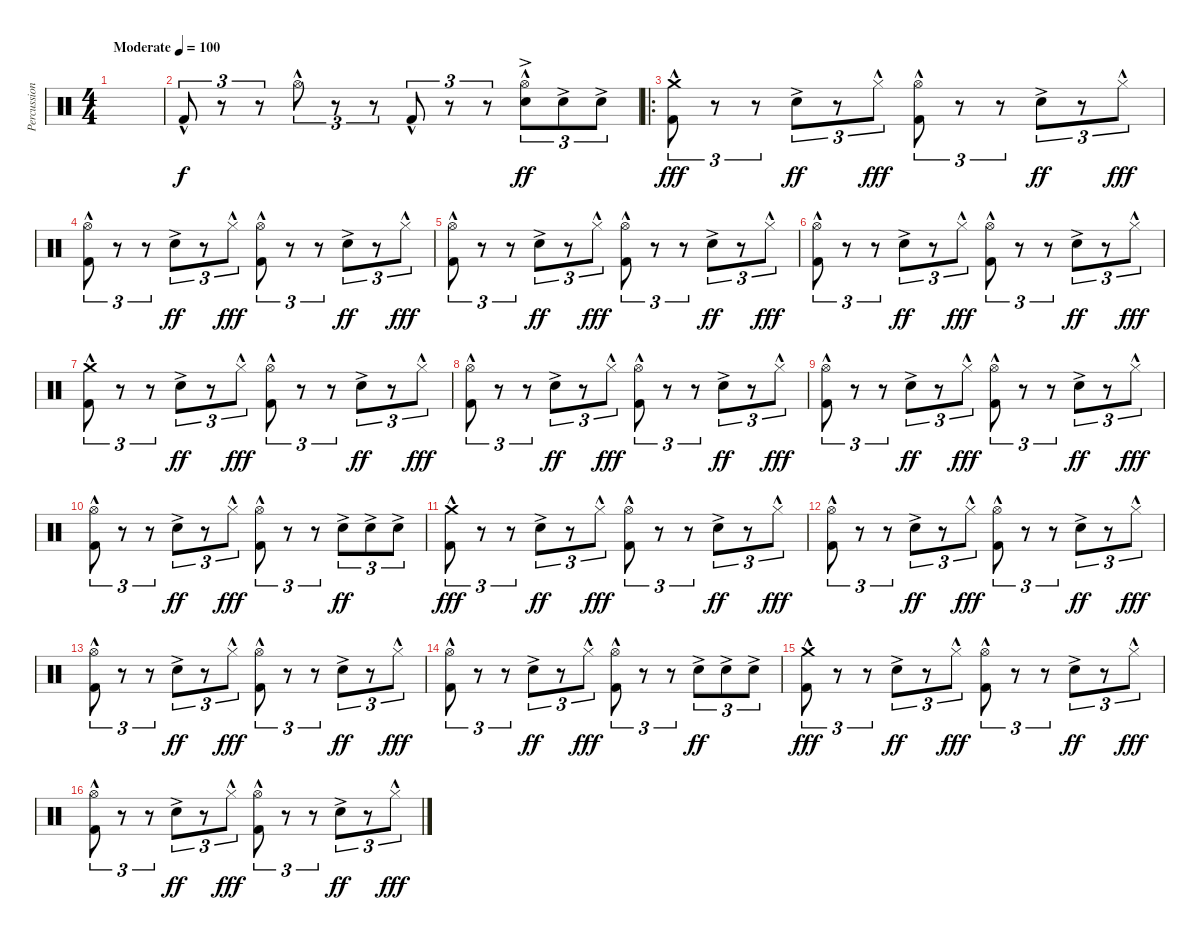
\track ("Percussion" "Percussion") {instrument percussion}
\staff {score}
\articulation defaults
\ts (4 4)
\tempo (100 "Moderate")
\clef neutral
\ks c
|
"Kick (hit) 2"{hac}.8{tu (3 2)} r.8{tu (3 2)} r.8{tu (3 2)} "Hi-Hat (open)"{hac}.8{tu (3 2)} r.8{tu (3 2)} r.8{tu (3 2)} "Kick (hit) 2"{hac}.8{tu (3 2)} r.8{tu (3 2)} r.8{tu (3 2)} ("Hi-Hat (open)"{hac} "Snare (hit) 2"{ac}).8{tu (3 2) dy ff} "Snare (hit) 2"{ac}.8{tu (3 2)} "Snare (hit) 2"{ac}.8{tu (3 2)} |
\ro
("Crash medium (hit)"{hac} "Kick (hit) 2"{hac}).8{tu (3 2) dy fff} r.8{tu (3 2)} r.8{tu (3 2)} "Snare (hit) 2"{ac}.8{tu (3 2) dy ff} r.8{tu (3 2)} "Hi-Hat (closed)"{hac}.8{tu (3 2) dy fff} ("Hi-Hat (open)"{hac} "Kick (hit) 2"{hac}).8{tu (3 2)} r.8{tu (3 2)} r.8{tu (3 2)} "Snare (hit) 2"{ac}.8{tu (3 2) dy ff} r.8{tu (3 2)} "Hi-Hat (closed)"{hac}.8{tu (3 2) dy fff} |
("Hi-Hat (open)"{hac} "Kick (hit) 2"{hac}).8{tu (3 2)} r.8{tu (3 2)} r.8{tu (3 2)} "Snare (hit) 2"{ac}.8{tu (3 2) dy ff} r.8{tu (3 2)} "Hi-Hat (closed)"{hac}.8{tu (3 2) dy fff} ("Hi-Hat (open)"{hac} "Kick (hit) 2"{hac}).8{tu (3 2)} r.8{tu (3 2)} r.8{tu (3 2)} "Snare (hit) 2"{ac}.8{tu (3 2) dy ff} r.8{tu (3 2)} "Hi-Hat (closed)"{hac}.8{tu (3 2) dy fff} |
("Hi-Hat (open)"{hac} "Kick (hit) 2"{hac}).8{tu (3 2)} r.8{tu (3 2)} r.8{tu (3 2)} "Snare (hit) 2"{ac}.8{tu (3 2) dy ff} r.8{tu (3 2)} "Hi-Hat (closed)"{hac}.8{tu (3 2) dy fff} ("Hi-Hat (open)"{hac} "Kick (hit) 2"{hac}).8{tu (3 2)} r.8{tu (3 2)} r.8{tu (3 2)} "Snare (hit) 2"{ac}.8{tu (3 2) dy ff} r.8{tu (3 2)} "Hi-Hat (closed)"{hac}.8{tu (3 2) dy fff} |
("Hi-Hat (open)"{hac} "Kick (hit) 2"{hac}).8{tu (3 2)} r.8{tu (3 2)} r.8{tu (3 2)} "Snare (hit) 2"{ac}.8{tu (3 2) dy ff} r.8{tu (3 2)} "Hi-Hat (closed)"{hac}.8{tu (3 2) dy fff} ("Hi-Hat (open)"{hac} "Kick (hit) 2"{hac}).8{tu (3 2)} r.8{tu (3 2)} r.8{tu (3 2)} "Snare (hit) 2"{ac}.8{tu (3 2) dy ff} r.8{tu (3 2)} "Hi-Hat (closed)"{hac}.8{tu (3 2) dy fff} |
("Crash medium (hit)"{hac} "Kick (hit) 2"{hac}).8{tu (3 2)} r.8{tu (3 2)} r.8{tu (3 2)} "Snare (hit) 2"{ac}.8{tu (3 2) dy ff} r.8{tu (3 2)} "Hi-Hat (closed)"{hac}.8{tu (3 2) dy fff} ("Hi-Hat (open)"{hac} "Kick (hit) 2"{hac}).8{tu (3 2)} r.8{tu (3 2)} r.8{tu (3 2)} "Snare (hit) 2"{ac}.8{tu (3 2) dy ff} r.8{tu (3 2)} "Hi-Hat (closed)"{hac}.8{tu (3 2) dy fff} |
("Hi-Hat (open)"{hac} "Kick (hit) 2"{hac}).8{tu (3 2)} r.8{tu (3 2)} r.8{tu (3 2)} "Snare (hit) 2"{ac}.8{tu (3 2) dy ff} r.8{tu (3 2)} "Hi-Hat (closed)"{hac}.8{tu (3 2) dy fff} ("Hi-Hat (open)"{hac} "Kick (hit) 2"{hac}).8{tu (3 2)} r.8{tu (3 2)} r.8{tu (3 2)} "Snare (hit) 2"{ac}.8{tu (3 2) dy ff} r.8{tu (3 2)} "Hi-Hat (closed)"{hac}.8{tu (3 2) dy fff} |
("Hi-Hat (open)"{hac} "Kick (hit) 2"{hac}).8{tu (3 2)} r.8{tu (3 2)} r.8{tu (3 2)} "Snare (hit) 2"{ac}.8{tu (3 2) dy ff} r.8{tu (3 2)} "Hi-Hat (closed)"{hac}.8{tu (3 2) dy fff} ("Hi-Hat (open)"{hac} "Kick (hit) 2"{hac}).8{tu (3 2)} r.8{tu (3 2)} r.8{tu (3 2)} "Snare (hit) 2"{ac}.8{tu (3 2) dy ff} r.8{tu (3 2)} "Hi-Hat (closed)"{hac}.8{tu (3 2) dy fff} |
("Hi-Hat (open)"{hac} "Kick (hit) 2"{hac}).8{tu (3 2)} r.8{tu (3 2)} r.8{tu (3 2)} "Snare (hit) 2"{ac}.8{tu (3 2) dy ff} r.8{tu (3 2)} "Hi-Hat (closed)"{hac}.8{tu (3 2) dy fff} ("Hi-Hat (open)"{hac} "Kick (hit) 2"{hac}).8{tu (3 2)} r.8{tu (3 2)} r.8{tu (3 2)} "Snare (hit) 2"{ac}.8{tu (3 2) dy ff} "Snare (hit) 2"{ac}.8{tu (3 2)} "Snare (hit) 2"{ac}.8{tu (3 2)} |
("Crash medium (hit)"{hac} "Kick (hit) 2"{hac}).8{tu (3 2) dy fff} r.8{tu (3 2)} r.8{tu (3 2)} "Snare (hit) 2"{ac}.8{tu (3 2) dy ff} r.8{tu (3 2)} "Hi-Hat (closed)"{hac}.8{tu (3 2) dy fff} ("Hi-Hat (open)"{hac} "Kick (hit) 2"{hac}).8{tu (3 2)} r.8{tu (3 2)} r.8{tu (3 2)} "Snare (hit) 2"{ac}.8{tu (3 2) dy ff} r.8{tu (3 2)} "Hi-Hat (closed)"{hac}.8{tu (3 2) dy fff} |
("Hi-Hat (open)"{hac} "Kick (hit) 2"{hac}).8{tu (3 2)} r.8{tu (3 2)} r.8{tu (3 2)} "Snare (hit) 2"{ac}.8{tu (3 2) dy ff} r.8{tu (3 2)} "Hi-Hat (closed)"{hac}.8{tu (3 2) dy fff} ("Hi-Hat (open)"{hac} "Kick (hit) 2"{hac}).8{tu (3 2)} r.8{tu (3 2)} r.8{tu (3 2)} "Snare (hit) 2"{ac}.8{tu (3 2) dy ff} r.8{tu (3 2)} "Hi-Hat (closed)"{hac}.8{tu (3 2) dy fff} |
("Hi-Hat (open)"{hac} "Kick (hit) 2"{hac}).8{tu (3 2)} r.8{tu (3 2)} r.8{tu (3 2)} "Snare (hit) 2"{ac}.8{tu (3 2) dy ff} r.8{tu (3 2)} "Hi-Hat (closed)"{hac}.8{tu (3 2) dy fff} ("Hi-Hat (open)"{hac} "Kick (hit) 2"{hac}).8{tu (3 2)} r.8{tu (3 2)} r.8{tu (3 2)} "Snare (hit) 2"{ac}.8{tu (3 2) dy ff} r.8{tu (3 2)} "Hi-Hat (closed)"{hac}.8{tu (3 2) dy fff} |
("Hi-Hat (open)"{hac} "Kick (hit) 2"{hac}).8{tu (3 2)} r.8{tu (3 2)} r.8{tu (3 2)} "Snare (hit) 2"{ac}.8{tu (3 2) dy ff} r.8{tu (3 2)} "Hi-Hat (closed)"{hac}.8{tu (3 2) dy fff} ("Hi-Hat (open)"{hac} "Kick (hit) 2"{hac}).8{tu (3 2)} r.8{tu (3 2)} r.8{tu (3 2)} "Snare (hit) 2"{ac}.8{tu (3 2) dy ff} "Snare (hit) 2"{ac}.8{tu (3 2)} "Snare (hit) 2"{ac}.8{tu (3 2)} |
("Crash medium (hit)"{hac} "Kick (hit) 2"{hac}).8{tu (3 2) dy fff} r.8{tu (3 2)} r.8{tu (3 2)} "Snare (hit) 2"{ac}.8{tu (3 2) dy ff} r.8{tu (3 2)} "Hi-Hat (closed)"{hac}.8{tu (3 2) dy fff} ("Hi-Hat (open)"{hac} "Kick (hit) 2"{hac}).8{tu (3 2)} r.8{tu (3 2)} r.8{tu (3 2)} "Snare (hit) 2"{ac}.8{tu (3 2) dy ff} r.8{tu (3 2)} "Hi-Hat (closed)"{hac}.8{tu (3 2) dy fff} |
("Hi-Hat (open)"{hac} "Kick (hit) 2"{hac}).8{tu (3 2)} r.8{tu (3 2)} r.8{tu (3 2)} "Snare (hit) 2"{ac}.8{tu (3 2) dy ff} r.8{tu (3 2)} "Hi-Hat (closed)"{hac}.8{tu (3 2) dy fff} ("Hi-Hat (open)"{hac} "Kick (hit) 2"{hac}).8{tu (3 2)} r.8{tu (3 2)} r.8{tu (3 2)} "Snare (hit) 2"{ac}.8{tu (3 2) dy ff} r.8{tu (3 2)} "Hi-Hat (closed)"{hac}.8{tu (3 2) dy fff}
